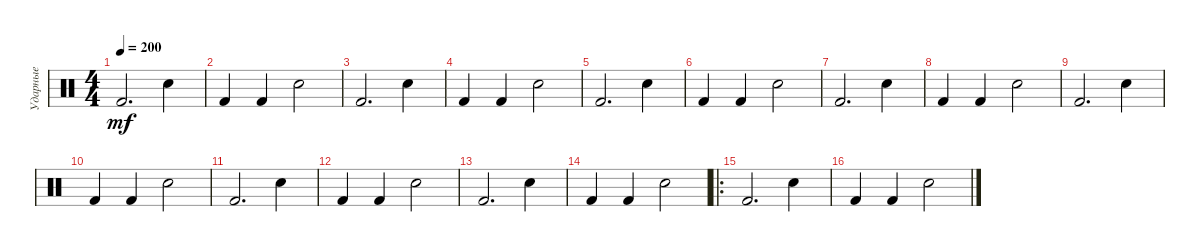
\track ("Ударные" "Ударные") {instrument percussion}
\staff {score}
\articulation defaults
\ts (4 4)
\tempo 200
\clef neutral
\ks c "Kick (hit) 2".2{d dy mf} "Snare (hit) 2".4
|
"Kick (hit) 2".4 "Kick (hit) 2".4 "Snare (hit) 2".2 |
"Kick (hit) 2".2{d} "Snare (hit) 2".4 |
"Kick (hit) 2".4 "Kick (hit) 2".4 "Snare (hit) 2".2 |
"Kick (hit) 2".2{d} "Snare (hit) 2".4 |
"Kick (hit) 2".4 "Kick (hit) 2".4 "Snare (hit) 2".2 |
"Kick (hit) 2".2{d} "Snare (hit) 2".4 |
"Kick (hit) 2".4 "Kick (hit) 2".4 "Snare (hit) 2".2 |
"Kick (hit) 2".2{d} "Snare (hit) 2".4 |
"Kick (hit) 2".4 "Kick (hit) 2".4 "Snare (hit) 2".2 |
"Kick (hit) 2".2{d} "Snare (hit) 2".4 |
"Kick (hit) 2".4 "Kick (hit) 2".4 "Snare (hit) 2".2 |
"Kick (hit) 2".2{d} "Snare (hit) 2".4 |
"Kick (hit) 2".4 "Kick (hit) 2".4 "Snare (hit) 2".2 |
\ro "Kick (hit) 2".2{d} "Snare (hit) 2".4
|
"Kick (hit) 2".4 "Kick (hit) 2".4 "Snare (hit) 2".2
